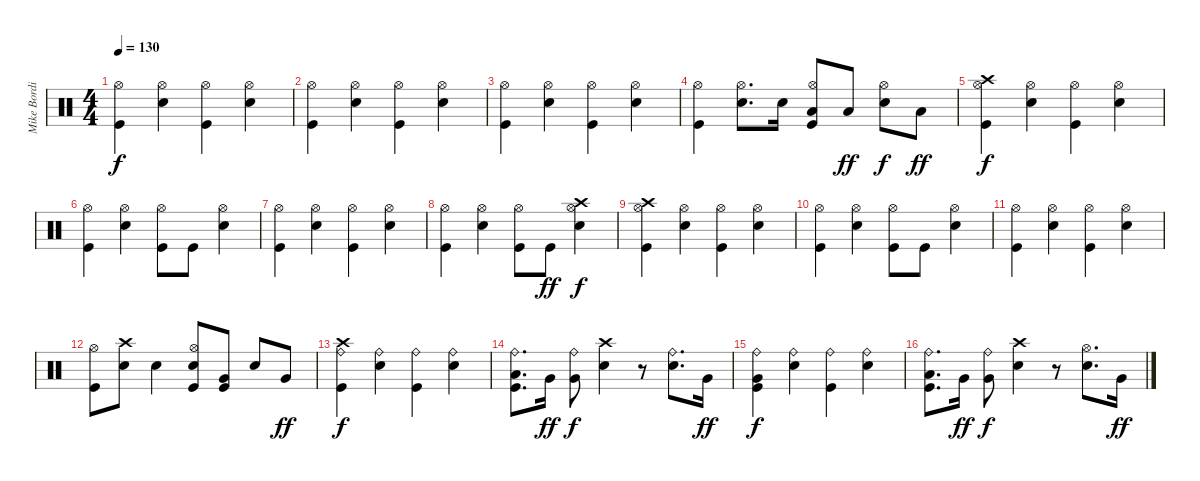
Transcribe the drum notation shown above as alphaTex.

\track ("Mike Bordin" "Mike Bordi") {instrument percussion}
\staff {score}
\articulation defaults
\ts (4 4)
\tempo 130
\clef neutral
\ks c
("Kick (hit)" "Hi-Hat (open)").4{dy f} ("Snare (hit) 2" "Hi-Hat (open)").4 ("Kick (hit)" "Hi-Hat (open)").4 ("Snare (hit) 2" "Hi-Hat (open)").4 |
("Kick (hit)" "Hi-Hat (open)").4 ("Snare (hit) 2" "Hi-Hat (open)").4 ("Kick (hit)" "Hi-Hat (open)").4 ("Snare (hit) 2" "Hi-Hat (open)").4 |
("Kick (hit)" "Hi-Hat (open)").4 ("Snare (hit) 2" "Hi-Hat (open)").4 ("Kick (hit)" "Hi-Hat (open)").4 ("Snare (hit) 2" "Hi-Hat (open)").4 |
("Kick (hit)" "Hi-Hat (open)").4 ("Snare (hit) 2" "Hi-Hat (open)").8{d} "Snare (hit) 2".16 ("Kick (hit)" "Hi-Hat (open)" "Low Tom (hit)").8 "Low Tom (hit)".8{dy ff} ("Snare (hit) 2" "Hi-Hat (open)").8{dy f} "Low Tom (hit)".8{dy ff} |
("Kick (hit)" "Hi-Hat (open)" "Crash high (hit)").4{dy f} ("Snare (hit) 2" "Hi-Hat (open)").4 ("Kick (hit)" "Hi-Hat (open)").4 ("Snare (hit) 2" "Hi-Hat (open)").4 |
("Kick (hit)" "Hi-Hat (open)").4 ("Snare (hit) 2" "Hi-Hat (open)").4 ("Kick (hit)" "Hi-Hat (open)").8 "Kick (hit)".8 ("Snare (hit) 2" "Hi-Hat (open)").4 |
("Kick (hit)" "Hi-Hat (open)").4 ("Snare (hit) 2" "Hi-Hat (open)").4 ("Kick (hit)" "Hi-Hat (open)").4 ("Snare (hit) 2" "Hi-Hat (open)").4 |
("Kick (hit)" "Hi-Hat (open)").4 ("Snare (hit) 2" "Hi-Hat (open)").4 ("Kick (hit)" "Hi-Hat (open)").8 "Kick (hit)".8{dy ff} ("Snare (hit) 2" "Hi-Hat (open)" "Crash high (hit)").4{dy f} |
("Kick (hit)" "Hi-Hat (open)" "Crash high (hit)").4 ("Snare (hit) 2" "Hi-Hat (open)").4 ("Kick (hit)" "Hi-Hat (open)").4 ("Snare (hit) 2" "Hi-Hat (open)").4 |
("Kick (hit)" "Hi-Hat (open)").4 ("Snare (hit) 2" "Hi-Hat (open)").4 ("Kick (hit)" "Hi-Hat (open)").8 "Kick (hit)".8 ("Snare (hit) 2" "Hi-Hat (open)").4 |
("Kick (hit)" "Hi-Hat (open)").4 ("Snare (hit) 2" "Hi-Hat (open)").4 ("Kick (hit)" "Hi-Hat (open)").4 ("Snare (hit) 2" "Hi-Hat (open)").4 |
("Kick (hit)" "Hi-Hat (open)").8 ("Snare (hit) 2" "Crash high (hit)").8 "Snare (hit) 2".4 ("Kick (hit)" "Snare (hit) 2" "Hi-Hat (open)").8 ("Kick (hit)" "Very Low Tom (hit)").8 "Snare (hit) 2".8 "Very Low Tom (hit)".8{dy ff} |
("Kick (hit)" "Ride (bell)" "Crash high (hit)").4{dy f} ("Snare (hit) 2" "Ride (bell)").4 ("Kick (hit)" "Ride (bell)").4 ("Snare (hit) 2" "Ride (bell)").4 |
("Kick (hit)" "Ride (bell)" "Low Tom (hit)").8{d} "Very Low Tom (hit)".16{dy ff} ("Ride (bell)" "Very Low Tom (hit)").8{dy f} ("Snare (hit) 2" "Crash high (hit)").4 r.8 ("Snare (hit) 2" "Ride (bell)").8{d} "Very Low Tom (hit)".16{dy ff} |
("Kick (hit)" "Ride (bell)" "Very Low Tom (hit)").4{dy f} ("Snare (hit) 2" "Ride (bell)").4 ("Kick (hit)" "Ride (bell)").4 ("Snare (hit) 2" "Ride (bell)").4 |
("Kick (hit)" "Ride (bell)" "Low Tom (hit)").8{d} "Very Low Tom (hit)".16{dy ff} ("Ride (bell)" "Very Low Tom (hit)").8{dy f} ("Snare (hit) 2" "Crash high (hit)").4 r.8 ("Snare (hit) 2" "Hi-Hat (open)").8{d} "Very Low Tom (hit)".16{dy ff}
